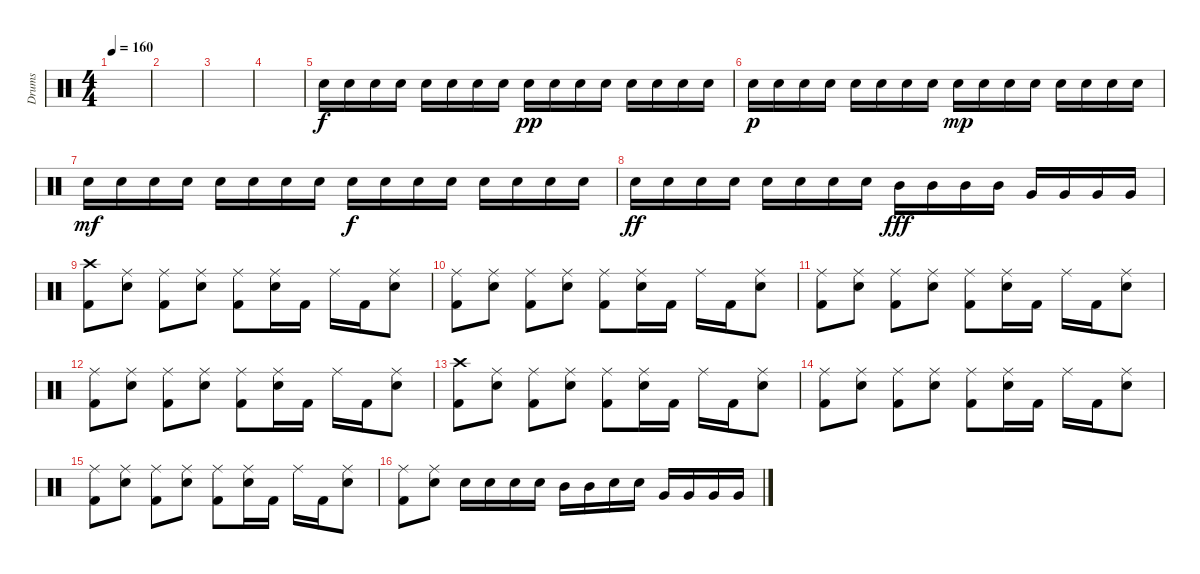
\track ("Drums" "Drums") {instrument percussion}
\staff {score}
\articulation defaults
\ts (4 4)
\tempo 160
\clef neutral
\ks c
|
|
|
|
"Electric Snare (hit)".16 "Electric Snare (hit)".16 "Electric Snare (hit)".16 "Electric Snare (hit)".16 "Electric Snare (hit)".16 "Electric Snare (hit)".16 "Electric Snare (hit)".16 "Electric Snare (hit)".16 "Electric Snare (hit)".16{dy pp} "Electric Snare (hit)".16 "Electric Snare (hit)".16 "Electric Snare (hit)".16 "Electric Snare (hit)".16 "Electric Snare (hit)".16 "Electric Snare (hit)".16 "Electric Snare (hit)".16 |
"Electric Snare (hit)".16{dy p} "Electric Snare (hit)".16 "Electric Snare (hit)".16 "Electric Snare (hit)".16 "Electric Snare (hit)".16 "Electric Snare (hit)".16 "Electric Snare (hit)".16 "Electric Snare (hit)".16 "Electric Snare (hit)".16{dy mp} "Electric Snare (hit)".16 "Electric Snare (hit)".16 "Electric Snare (hit)".16 "Electric Snare (hit)".16 "Electric Snare (hit)".16 "Electric Snare (hit)".16 "Electric Snare (hit)".16 |
"Electric Snare (hit)".16{dy mf} "Electric Snare (hit)".16 "Electric Snare (hit)".16 "Electric Snare (hit)".16 "Electric Snare (hit)".16 "Electric Snare (hit)".16 "Electric Snare (hit)".16 "Electric Snare (hit)".16 "Electric Snare (hit)".16{dy f} "Electric Snare (hit)".16 "Electric Snare (hit)".16 "Electric Snare (hit)".16 "Electric Snare (hit)".16 "Electric Snare (hit)".16 "Electric Snare (hit)".16 "Electric Snare (hit)".16 |
"Electric Snare (hit)".16{dy ff} "Electric Snare (hit)".16 "Electric Snare (hit)".16 "Electric Snare (hit)".16 "Electric Snare (hit)".16 "Electric Snare (hit)".16 "Electric Snare (hit)".16 "Electric Snare (hit)".16 "Mid Tom (hit)".16{dy fff} "Mid Tom (hit)".16 "Mid Tom (hit)".16 "Mid Tom (hit)".16 "Very Low Tom (hit)".16 "Very Low Tom (hit)".16 "Very Low Tom (hit)".16 "Very Low Tom (hit)".16 |
("Crash high (hit)" "Kick (hit) 2").8 ("Ride (middle)" "Electric Snare (hit)").8 ("Ride (middle)" "Kick (hit) 2").8 ("Ride (middle)" "Electric Snare (hit)").8 ("Ride (middle)" "Kick (hit) 2").8 ("Ride (middle)" "Electric Snare (hit)").16 "Kick (hit) 2".16 "Ride (middle)".16 "Kick (hit) 2".16 ("Ride (middle)" "Electric Snare (hit)").8 |
("Ride (middle)" "Kick (hit) 2").8 ("Ride (middle)" "Electric Snare (hit)").8 ("Ride (middle)" "Kick (hit) 2").8 ("Ride (middle)" "Electric Snare (hit)").8 ("Ride (middle)" "Kick (hit) 2").8 ("Ride (middle)" "Electric Snare (hit)").16 "Kick (hit) 2".16 "Ride (middle)".16 "Kick (hit) 2".16 ("Ride (middle)" "Electric Snare (hit)").8 |
("Ride (middle)" "Kick (hit) 2").8 ("Ride (middle)" "Electric Snare (hit)").8 ("Ride (middle)" "Kick (hit) 2").8 ("Ride (middle)" "Electric Snare (hit)").8 ("Ride (middle)" "Kick (hit) 2").8 ("Ride (middle)" "Electric Snare (hit)").16 "Kick (hit) 2".16 "Ride (middle)".16 "Kick (hit) 2".16 ("Ride (middle)" "Electric Snare (hit)").8 |
("Ride (middle)" "Kick (hit) 2").8 ("Ride (middle)" "Electric Snare (hit)").8 ("Ride (middle)" "Kick (hit) 2").8 ("Ride (middle)" "Electric Snare (hit)").8 ("Ride (middle)" "Kick (hit) 2").8 ("Ride (middle)" "Electric Snare (hit)").16 "Kick (hit) 2".16 "Ride (middle)".16 "Kick (hit) 2".16 ("Ride (middle)" "Electric Snare (hit)").8 |
("Crash high (hit)" "Kick (hit) 2").8 ("Ride (middle)" "Electric Snare (hit)").8 ("Ride (middle)" "Kick (hit) 2").8 ("Ride (middle)" "Electric Snare (hit)").8 ("Ride (middle)" "Kick (hit) 2").8 ("Ride (middle)" "Electric Snare (hit)").16 "Kick (hit) 2".16 "Ride (middle)".16 "Kick (hit) 2".16 ("Ride (middle)" "Electric Snare (hit)").8 |
("Ride (middle)" "Kick (hit) 2").8 ("Ride (middle)" "Electric Snare (hit)").8 ("Ride (middle)" "Kick (hit) 2").8 ("Ride (middle)" "Electric Snare (hit)").8 ("Ride (middle)" "Kick (hit) 2").8 ("Ride (middle)" "Electric Snare (hit)").16 "Kick (hit) 2".16 "Ride (middle)".16 "Kick (hit) 2".16 ("Ride (middle)" "Electric Snare (hit)").8 |
("Ride (middle)" "Kick (hit) 2").8 ("Ride (middle)" "Electric Snare (hit)").8 ("Ride (middle)" "Kick (hit) 2").8 ("Ride (middle)" "Electric Snare (hit)").8 ("Ride (middle)" "Kick (hit) 2").8 ("Ride (middle)" "Electric Snare (hit)").16 "Kick (hit) 2".16 "Ride (middle)".16 "Kick (hit) 2".16 ("Ride (middle)" "Electric Snare (hit)").8 |
("Ride (middle)" "Kick (hit) 2").8 ("Ride (middle)" "Electric Snare (hit)").8 "Electric Snare (hit)".16 "Electric Snare (hit)".16 "Electric Snare (hit)".16 "Electric Snare (hit)".16 "Mid Tom (hit)".16 "Mid Tom (hit)".16 "Electric Snare (hit)".16 "Electric Snare (hit)".16 "Very Low Tom (hit)".16 "Very Low Tom (hit)".16 "Very Low Tom (hit)".16 "Very Low Tom (hit)".16
